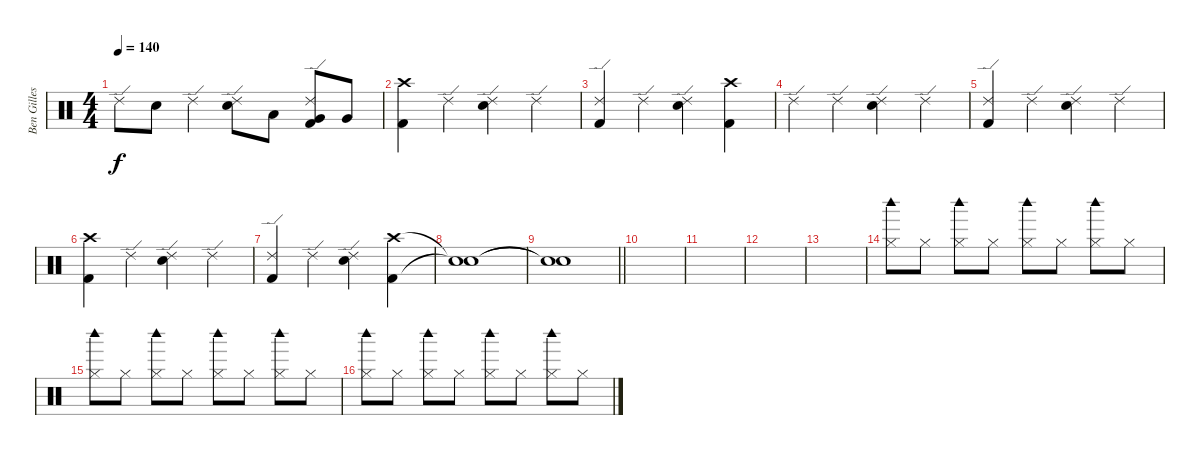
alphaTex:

\track ("Ben Gilles" "Ben Gilles") {instrument percussion}
\staff {score}
\articulation defaults
\ts (4 4)
\tempo 140
\clef neutral
\ks c "Ride (edge) 2".8{dy f} "Electric Snare (hit)".8 "Ride (edge) 2".4
("Ride (edge) 2" "Electric Snare (hit)").8 "Low Tom (hit)".8 ("Ride (edge) 2" "Very Low Tom (hit)" "Kick (hit) 2").8 "Very Low Tom (hit)".8 |
("Crash high (hit)" "Kick (hit) 2").4 "Ride (edge) 2".4 ("Ride (edge) 2" "Electric Snare (hit)").4 "Ride (edge) 2".4 |
("Ride (edge) 2" "Kick (hit) 2").4 "Ride (edge) 2".4 ("Ride (edge) 2" "Electric Snare (hit)").4 ("Crash high (hit)" "Kick (hit) 2").4 |
"Ride (edge) 2".4 "Ride (edge) 2".4 ("Ride (edge) 2" "Electric Snare (hit)").4 "Ride (edge) 2".4 |
("Ride (edge) 2" "Kick (hit) 2").4 "Ride (edge) 2".4 ("Ride (edge) 2" "Electric Snare (hit)").4 "Ride (edge) 2".4 |
("Crash high (hit)" "Kick (hit) 2").4 "Ride (edge) 2".4 ("Ride (edge) 2" "Electric Snare (hit)").4 "Ride (edge) 2".4 |
("Ride (edge) 2" "Kick (hit) 2").4 "Ride (edge) 2".4 ("Ride (edge) 2" "Electric Snare (hit)").4 ("Crash high (hit)" "Kick (hit) 2").4 |
("Snare (hit)"{t} "Snare (hit)"{t}).1 |
\barLineRight lightlight
("Snare (hit)"{t} "Snare (hit)"{t}).1 |
|
|
|
|
("Hi-Hat (closed)" "Woodblock high (hit)").8 "Hi-Hat (closed)".8 ("Hi-Hat (closed)" "Woodblock high (hit)").8 "Hi-Hat (closed)".8 ("Hi-Hat (closed)" "Woodblock high (hit)").8 "Hi-Hat (closed)".8 ("Hi-Hat (closed)" "Woodblock high (hit)").8 "Hi-Hat (closed)".8 |
("Hi-Hat (closed)" "Woodblock high (hit)").8 "Hi-Hat (closed)".8 ("Hi-Hat (closed)" "Woodblock high (hit)").8 "Hi-Hat (closed)".8 ("Hi-Hat (closed)" "Woodblock high (hit)").8 "Hi-Hat (closed)".8 ("Hi-Hat (closed)" "Woodblock high (hit)").8 "Hi-Hat (closed)".8 |
("Hi-Hat (closed)" "Woodblock high (hit)").8 "Hi-Hat (closed)".8 ("Hi-Hat (closed)" "Woodblock high (hit)").8 "Hi-Hat (closed)".8 ("Hi-Hat (closed)" "Woodblock high (hit)").8 "Hi-Hat (closed)".8 ("Hi-Hat (closed)" "Woodblock high (hit)").8 "Hi-Hat (closed)".8
